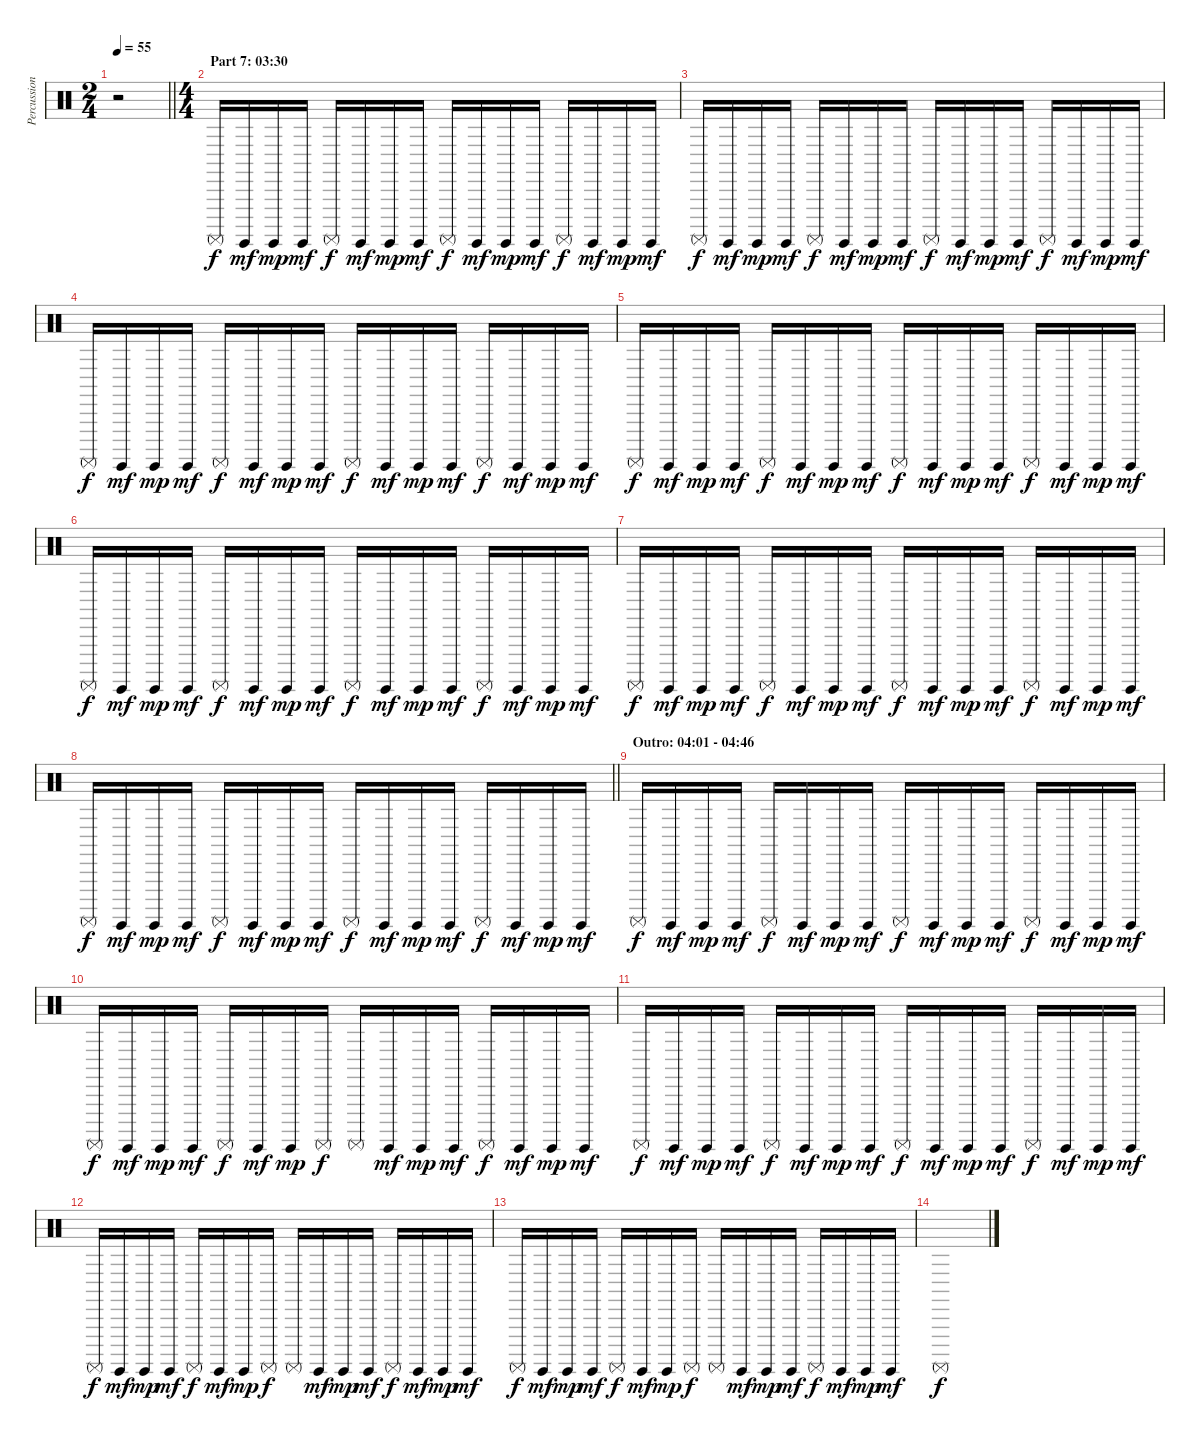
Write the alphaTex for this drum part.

\track ("Percussion" "Percussion") {instrument percussion}
\staff {score}
\articulation defaults
\ts (2 4)
\tempo 55
\clef neutral
\barLineRight lightlight
\ks c
r.2{dy mf} |
\ts (4 4)
\section ("" "Part 7: 03:30")
"Surdo (mute)".16{dy f} "Surdo (hit)".16{dy mf} "Surdo (hit)".16{dy mp} "Surdo (hit)".16{dy mf} "Surdo (mute)".16{dy f} "Surdo (hit)".16{dy mf} "Surdo (hit)".16{dy mp} "Surdo (hit)".16{dy mf} "Surdo (mute)".16{dy f} "Surdo (hit)".16{dy mf} "Surdo (hit)".16{dy mp} "Surdo (hit)".16{dy mf} "Surdo (mute)".16{dy f} "Surdo (hit)".16{dy mf} "Surdo (hit)".16{dy mp} "Surdo (hit)".16{dy mf} |
"Surdo (mute)".16{dy f} "Surdo (hit)".16{dy mf} "Surdo (hit)".16{dy mp} "Surdo (hit)".16{dy mf} "Surdo (mute)".16{dy f} "Surdo (hit)".16{dy mf} "Surdo (hit)".16{dy mp} "Surdo (hit)".16{dy mf} "Surdo (mute)".16{dy f} "Surdo (hit)".16{dy mf} "Surdo (hit)".16{dy mp} "Surdo (hit)".16{dy mf} "Surdo (mute)".16{dy f} "Surdo (hit)".16{dy mf} "Surdo (hit)".16{dy mp} "Surdo (hit)".16{dy mf} |
"Surdo (mute)".16{dy f} "Surdo (hit)".16{dy mf} "Surdo (hit)".16{dy mp} "Surdo (hit)".16{dy mf} "Surdo (mute)".16{dy f} "Surdo (hit)".16{dy mf} "Surdo (hit)".16{dy mp} "Surdo (hit)".16{dy mf} "Surdo (mute)".16{dy f} "Surdo (hit)".16{dy mf} "Surdo (hit)".16{dy mp} "Surdo (hit)".16{dy mf} "Surdo (mute)".16{dy f} "Surdo (hit)".16{dy mf} "Surdo (hit)".16{dy mp} "Surdo (hit)".16{dy mf} |
"Surdo (mute)".16{dy f} "Surdo (hit)".16{dy mf} "Surdo (hit)".16{dy mp} "Surdo (hit)".16{dy mf} "Surdo (mute)".16{dy f} "Surdo (hit)".16{dy mf} "Surdo (hit)".16{dy mp} "Surdo (hit)".16{dy mf} "Surdo (mute)".16{dy f} "Surdo (hit)".16{dy mf} "Surdo (hit)".16{dy mp} "Surdo (hit)".16{dy mf} "Surdo (mute)".16{dy f} "Surdo (hit)".16{dy mf} "Surdo (hit)".16{dy mp} "Surdo (hit)".16{dy mf} |
"Surdo (mute)".16{dy f} "Surdo (hit)".16{dy mf} "Surdo (hit)".16{dy mp} "Surdo (hit)".16{dy mf} "Surdo (mute)".16{dy f} "Surdo (hit)".16{dy mf} "Surdo (hit)".16{dy mp} "Surdo (hit)".16{dy mf} "Surdo (mute)".16{dy f} "Surdo (hit)".16{dy mf} "Surdo (hit)".16{dy mp} "Surdo (hit)".16{dy mf} "Surdo (mute)".16{dy f} "Surdo (hit)".16{dy mf} "Surdo (hit)".16{dy mp} "Surdo (hit)".16{dy mf} |
"Surdo (mute)".16{dy f} "Surdo (hit)".16{dy mf} "Surdo (hit)".16{dy mp} "Surdo (hit)".16{dy mf} "Surdo (mute)".16{dy f} "Surdo (hit)".16{dy mf} "Surdo (hit)".16{dy mp} "Surdo (hit)".16{dy mf} "Surdo (mute)".16{dy f} "Surdo (hit)".16{dy mf} "Surdo (hit)".16{dy mp} "Surdo (hit)".16{dy mf} "Surdo (mute)".16{dy f} "Surdo (hit)".16{dy mf} "Surdo (hit)".16{dy mp} "Surdo (hit)".16{dy mf} |
\barLineRight lightlight "Surdo (mute)".16{dy f} "Surdo (hit)".16{dy mf} "Surdo (hit)".16{dy mp} "Surdo (hit)".16{dy mf} "Surdo (mute)".16{dy f} "Surdo (hit)".16{dy mf} "Surdo (hit)".16{dy mp} "Surdo (hit)".16{dy mf} "Surdo (mute)".16{dy f} "Surdo (hit)".16{dy mf} "Surdo (hit)".16{dy mp} "Surdo (hit)".16{dy mf} "Surdo (mute)".16{dy f} "Surdo (hit)".16{dy mf} "Surdo (hit)".16{dy mp} "Surdo (hit)".16{dy mf}
|
\section ("" "Outro: 04:01 - 04:46")
"Surdo (mute)".16{dy f} "Surdo (hit)".16{dy mf} "Surdo (hit)".16{dy mp} "Surdo (hit)".16{dy mf} "Surdo (mute)".16{dy f} "Surdo (hit)".16{dy mf} "Surdo (hit)".16{dy mp} "Surdo (hit)".16{dy mf} "Surdo (mute)".16{dy f} "Surdo (hit)".16{dy mf} "Surdo (hit)".16{dy mp} "Surdo (hit)".16{dy mf} "Surdo (mute)".16{dy f} "Surdo (hit)".16{dy mf} "Surdo (hit)".16{dy mp} "Surdo (hit)".16{dy mf} |
"Surdo (mute)".16{dy f} "Surdo (hit)".16{dy mf} "Surdo (hit)".16{dy mp} "Surdo (hit)".16{dy mf} "Surdo (mute)".16{dy f} "Surdo (hit)".16{dy mf} "Surdo (hit)".16{dy mp} "Surdo (mute)".16{dy f} "Surdo (mute)".16 "Surdo (hit)".16{dy mf} "Surdo (hit)".16{dy mp} "Surdo (hit)".16{dy mf} "Surdo (mute)".16{dy f} "Surdo (hit)".16{dy mf} "Surdo (hit)".16{dy mp} "Surdo (hit)".16{dy mf} |
"Surdo (mute)".16{dy f} "Surdo (hit)".16{dy mf} "Surdo (hit)".16{dy mp} "Surdo (hit)".16{dy mf} "Surdo (mute)".16{dy f} "Surdo (hit)".16{dy mf} "Surdo (hit)".16{dy mp} "Surdo (hit)".16{dy mf} "Surdo (mute)".16{dy f} "Surdo (hit)".16{dy mf} "Surdo (hit)".16{dy mp} "Surdo (hit)".16{dy mf} "Surdo (mute)".16{dy f} "Surdo (hit)".16{dy mf} "Surdo (hit)".16{dy mp} "Surdo (hit)".16{dy mf} |
"Surdo (mute)".16{dy f} "Surdo (hit)".16{dy mf} "Surdo (hit)".16{dy mp} "Surdo (hit)".16{dy mf} "Surdo (mute)".16{dy f} "Surdo (hit)".16{dy mf} "Surdo (hit)".16{dy mp} "Surdo (mute)".16{dy f} "Surdo (mute)".16 "Surdo (hit)".16{dy mf} "Surdo (hit)".16{dy mp} "Surdo (hit)".16{dy mf} "Surdo (mute)".16{dy f} "Surdo (hit)".16{dy mf} "Surdo (hit)".16{dy mp} "Surdo (hit)".16{dy mf} |
"Surdo (mute)".16{dy f} "Surdo (hit)".16{dy mf} "Surdo (hit)".16{dy mp} "Surdo (hit)".16{dy mf} "Surdo (mute)".16{dy f} "Surdo (hit)".16{dy mf} "Surdo (hit)".16{dy mp} "Surdo (mute)".16{dy f} "Surdo (mute)".16 "Surdo (hit)".16{dy mf} "Surdo (hit)".16{dy mp} "Surdo (hit)".16{dy mf} "Surdo (mute)".16{dy f} "Surdo (hit)".16{dy mf} "Surdo (hit)".16{dy mp} "Surdo (hit)".16{dy mf} |
"Surdo (mute)".1{dy f}
